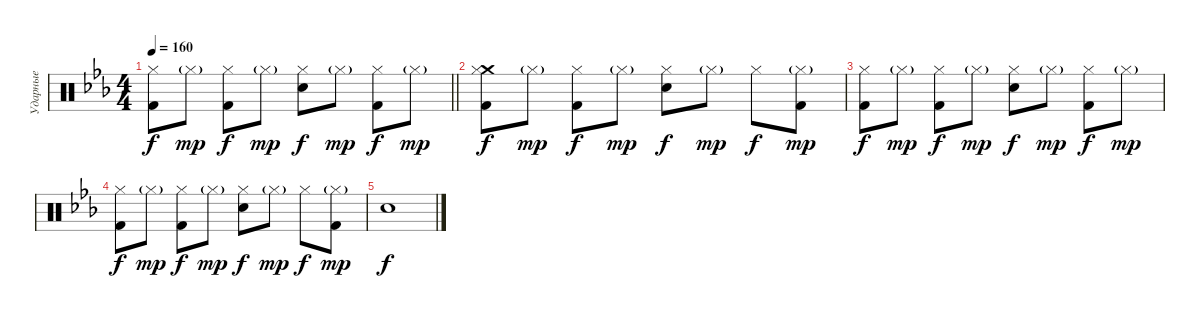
\track ("Ударные" "Ударные") {instrument percussion}
\staff {score}
\articulation defaults
\ts (4 4)
\tempo 160
\clef neutral
\barLineRight lightlight
\ks cminor
("Kick (hit) 2" "Hi-Hat (closed)").8{dy f} "Hi-Hat (closed)"{g}.8{dy mp} ("Kick (hit) 2" "Hi-Hat (closed)").8{dy f} "Hi-Hat (closed)"{g}.8{dy mp} ("Electric Snare (hit)" "Hi-Hat (closed)").8{dy f} "Hi-Hat (closed)"{g}.8{dy mp} ("Kick (hit) 2" "Hi-Hat (closed)").8{dy f} "Hi-Hat (closed)"{g}.8{dy mp} |
("Crash medium (hit)" "Kick (hit) 2" "Hi-Hat (closed)").8{dy f} "Hi-Hat (closed)"{g}.8{dy mp} ("Kick (hit) 2" "Hi-Hat (closed)").8{dy f} "Hi-Hat (closed)"{g}.8{dy mp} ("Electric Snare (hit)" "Hi-Hat (closed)").8{dy f} "Hi-Hat (closed)"{g}.8{dy mp} "Hi-Hat (closed)".8{dy f} ("Kick (hit) 2" "Hi-Hat (closed)"{g}).8{dy mp} |
("Kick (hit) 2" "Hi-Hat (closed)").8{dy f} "Hi-Hat (closed)"{g}.8{dy mp} ("Kick (hit) 2" "Hi-Hat (closed)").8{dy f} "Hi-Hat (closed)"{g}.8{dy mp} ("Electric Snare (hit)" "Hi-Hat (closed)").8{dy f} "Hi-Hat (closed)"{g}.8{dy mp} ("Kick (hit) 2" "Hi-Hat (closed)").8{dy f} "Hi-Hat (closed)"{g}.8{dy mp} |
("Kick (hit) 2" "Hi-Hat (closed)").8{dy f} "Hi-Hat (closed)"{g}.8{dy mp} ("Kick (hit) 2" "Hi-Hat (closed)").8{dy f} "Hi-Hat (closed)"{g}.8{dy mp} ("Electric Snare (hit)" "Hi-Hat (closed)").8{dy f} "Hi-Hat (closed)"{g}.8{dy mp} "Hi-Hat (closed)".8{dy f} ("Kick (hit) 2" "Hi-Hat (closed)"{g}).8{dy mp} |
"Electric Snare (hit)".1{dy f}
